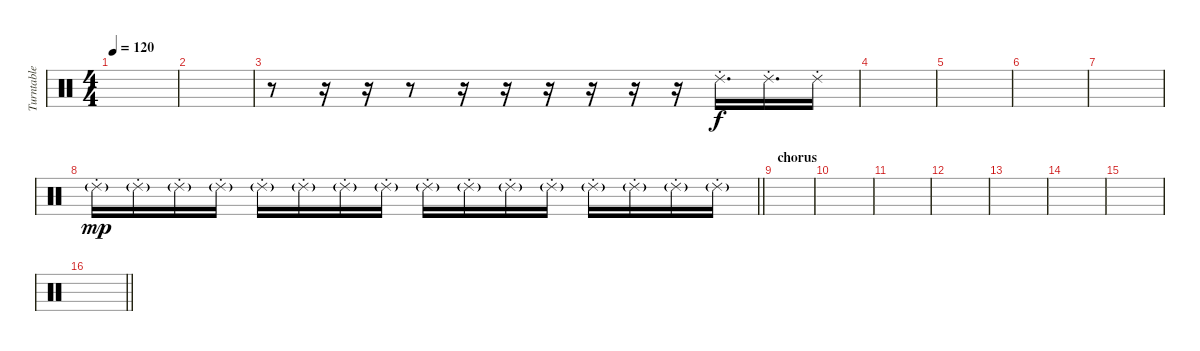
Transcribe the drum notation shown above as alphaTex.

\track ("Turntable" "Turntable") {instrument percussion}
\staff {score}
\articulation defaults
\ts (4 4)
\tempo 120
\clef neutral
\ks c
|
|
r.8 r.16 r.16 r.8 r.16 r.16 r.16 r.16 r.16 r.16 "Ride (choke) 2".16{d} "Ride (choke) 2".16{d} "Ride (choke) 2".16 |
|
|
|
|
\barLineRight lightlight "Ride (choke) 2"{g}.16{dy mp} "Ride (choke) 2"{g}.16 "Ride (choke) 2"{g}.16 "Ride (choke) 2"{g}.16 "Ride (choke) 2"{g}.16 "Ride (choke) 2"{g}.16 "Ride (choke) 2"{g}.16 "Ride (choke) 2"{g}.16 "Ride (choke) 2"{g}.16 "Ride (choke) 2"{g}.16 "Ride (choke) 2"{g}.16 "Ride (choke) 2"{g}.16 "Ride (choke) 2"{g}.16 "Ride (choke) 2"{g}.16 "Ride (choke) 2"{g}.16 "Ride (choke) 2"{g}.16
|
\section ("" "chorus")
|
|
|
|
|
|
|
\barLineRight lightlight
